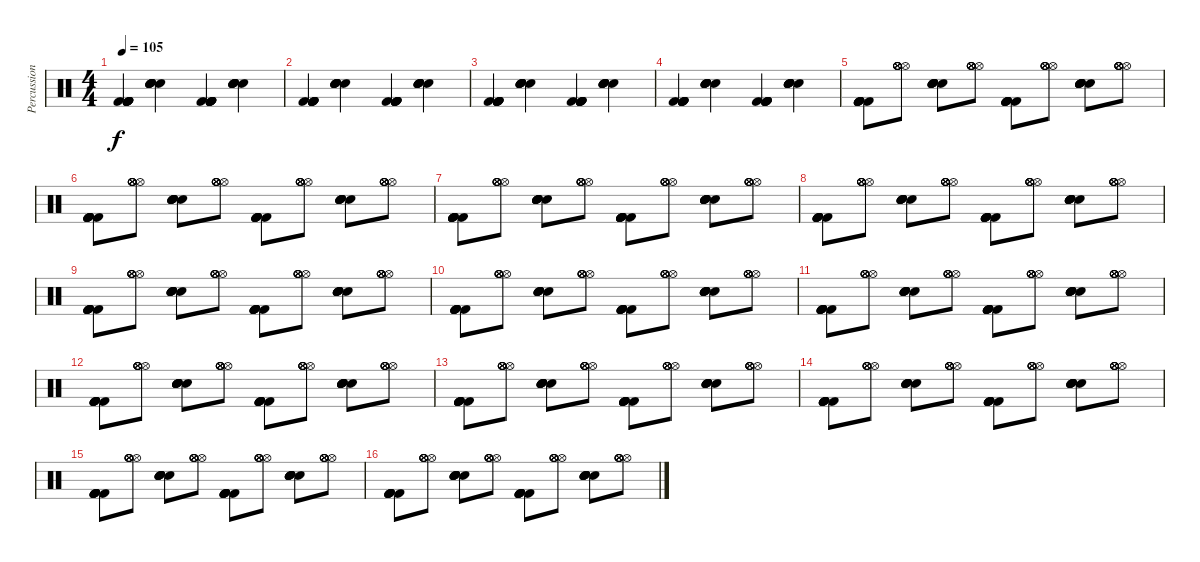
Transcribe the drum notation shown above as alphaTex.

\track ("Percussion" "Percussion") {instrument percussion}
\staff {score}
\articulation defaults
\ts (4 4)
\tempo 105
\clef neutral
\ks c
("Kick (hit) 2" "Kick (hit) 2" "Kick (hit) 2" "Kick (hit) 2" "Kick (hit) 2" "Kick (hit) 2").4{dy f} ("Electric Snare (hit)" "Electric Snare (hit)" "Electric Snare (hit)" "Electric Snare (hit)" "Electric Snare (hit)" "Electric Snare (hit)").4 ("Kick (hit) 2" "Kick (hit) 2" "Kick (hit) 2" "Kick (hit) 2" "Kick (hit) 2" "Kick (hit) 2").4 ("Electric Snare (hit)" "Electric Snare (hit)" "Electric Snare (hit)" "Electric Snare (hit)" "Electric Snare (hit)" "Electric Snare (hit)").4 |
("Kick (hit) 2" "Kick (hit) 2" "Kick (hit) 2" "Kick (hit) 2" "Kick (hit) 2" "Kick (hit) 2").4 ("Electric Snare (hit)" "Electric Snare (hit)" "Electric Snare (hit)" "Electric Snare (hit)" "Electric Snare (hit)" "Electric Snare (hit)").4 ("Kick (hit) 2" "Kick (hit) 2" "Kick (hit) 2" "Kick (hit) 2" "Kick (hit) 2" "Kick (hit) 2").4 ("Electric Snare (hit)" "Electric Snare (hit)" "Electric Snare (hit)" "Electric Snare (hit)" "Electric Snare (hit)" "Electric Snare (hit)").4 |
("Kick (hit) 2" "Kick (hit) 2" "Kick (hit) 2" "Kick (hit) 2" "Kick (hit) 2" "Kick (hit) 2").4 ("Electric Snare (hit)" "Electric Snare (hit)" "Electric Snare (hit)" "Electric Snare (hit)" "Electric Snare (hit)" "Electric Snare (hit)").4 ("Kick (hit) 2" "Kick (hit) 2" "Kick (hit) 2" "Kick (hit) 2" "Kick (hit) 2" "Kick (hit) 2").4 ("Electric Snare (hit)" "Electric Snare (hit)" "Electric Snare (hit)" "Electric Snare (hit)" "Electric Snare (hit)" "Electric Snare (hit)").4 |
("Kick (hit) 2" "Kick (hit) 2" "Kick (hit) 2" "Kick (hit) 2" "Kick (hit) 2" "Kick (hit) 2").4 ("Electric Snare (hit)" "Electric Snare (hit)" "Electric Snare (hit)" "Electric Snare (hit)" "Electric Snare (hit)" "Electric Snare (hit)").4 ("Kick (hit) 2" "Kick (hit) 2" "Kick (hit) 2" "Kick (hit) 2" "Kick (hit) 2" "Kick (hit) 2").4 ("Electric Snare (hit)" "Electric Snare (hit)" "Electric Snare (hit)" "Electric Snare (hit)" "Electric Snare (hit)" "Electric Snare (hit)").4 |
("Kick (hit) 2" "Kick (hit) 2" "Kick (hit) 2" "Kick (hit) 2" "Kick (hit) 2" "Kick (hit) 2").8 ("Hi-Hat (open)" "Hi-Hat (open)" "Hi-Hat (open)" "Hi-Hat (open)" "Hi-Hat (open)" "Hi-Hat (open)").8 ("Electric Snare (hit)" "Electric Snare (hit)" "Electric Snare (hit)" "Electric Snare (hit)" "Electric Snare (hit)" "Electric Snare (hit)").8 ("Hi-Hat (open)" "Hi-Hat (open)" "Hi-Hat (open)" "Hi-Hat (open)" "Hi-Hat (open)" "Hi-Hat (open)").8 ("Kick (hit) 2" "Kick (hit) 2" "Kick (hit) 2" "Kick (hit) 2" "Kick (hit) 2" "Kick (hit) 2").8 ("Hi-Hat (open)" "Hi-Hat (open)" "Hi-Hat (open)" "Hi-Hat (open)" "Hi-Hat (open)" "Hi-Hat (open)").8 ("Electric Snare (hit)" "Electric Snare (hit)" "Electric Snare (hit)" "Electric Snare (hit)" "Electric Snare (hit)" "Electric Snare (hit)").8 ("Hi-Hat (open)" "Hi-Hat (open)" "Hi-Hat (open)" "Hi-Hat (open)" "Hi-Hat (open)" "Hi-Hat (open)").8 |
("Kick (hit) 2" "Kick (hit) 2" "Kick (hit) 2" "Kick (hit) 2" "Kick (hit) 2" "Kick (hit) 2").8 ("Hi-Hat (open)" "Hi-Hat (open)" "Hi-Hat (open)" "Hi-Hat (open)" "Hi-Hat (open)" "Hi-Hat (open)").8 ("Electric Snare (hit)" "Electric Snare (hit)" "Electric Snare (hit)" "Electric Snare (hit)" "Electric Snare (hit)" "Electric Snare (hit)").8 ("Hi-Hat (open)" "Hi-Hat (open)" "Hi-Hat (open)" "Hi-Hat (open)" "Hi-Hat (open)" "Hi-Hat (open)").8 ("Kick (hit) 2" "Kick (hit) 2" "Kick (hit) 2" "Kick (hit) 2" "Kick (hit) 2" "Kick (hit) 2").8 ("Hi-Hat (open)" "Hi-Hat (open)" "Hi-Hat (open)" "Hi-Hat (open)" "Hi-Hat (open)" "Hi-Hat (open)").8 ("Electric Snare (hit)" "Electric Snare (hit)" "Electric Snare (hit)" "Electric Snare (hit)" "Electric Snare (hit)" "Electric Snare (hit)").8 ("Hi-Hat (open)" "Hi-Hat (open)" "Hi-Hat (open)" "Hi-Hat (open)" "Hi-Hat (open)" "Hi-Hat (open)").8 |
("Kick (hit) 2" "Kick (hit) 2" "Kick (hit) 2" "Kick (hit) 2" "Kick (hit) 2" "Kick (hit) 2").8 ("Hi-Hat (open)" "Hi-Hat (open)" "Hi-Hat (open)" "Hi-Hat (open)" "Hi-Hat (open)" "Hi-Hat (open)").8 ("Electric Snare (hit)" "Electric Snare (hit)" "Electric Snare (hit)" "Electric Snare (hit)" "Electric Snare (hit)" "Electric Snare (hit)").8 ("Hi-Hat (open)" "Hi-Hat (open)" "Hi-Hat (open)" "Hi-Hat (open)" "Hi-Hat (open)" "Hi-Hat (open)").8 ("Kick (hit) 2" "Kick (hit) 2" "Kick (hit) 2" "Kick (hit) 2" "Kick (hit) 2" "Kick (hit) 2").8 ("Hi-Hat (open)" "Hi-Hat (open)" "Hi-Hat (open)" "Hi-Hat (open)" "Hi-Hat (open)" "Hi-Hat (open)").8 ("Electric Snare (hit)" "Electric Snare (hit)" "Electric Snare (hit)" "Electric Snare (hit)" "Electric Snare (hit)" "Electric Snare (hit)").8 ("Hi-Hat (open)" "Hi-Hat (open)" "Hi-Hat (open)" "Hi-Hat (open)" "Hi-Hat (open)" "Hi-Hat (open)").8 |
("Kick (hit) 2" "Kick (hit) 2" "Kick (hit) 2" "Kick (hit) 2" "Kick (hit) 2" "Kick (hit) 2").8 ("Hi-Hat (open)" "Hi-Hat (open)" "Hi-Hat (open)" "Hi-Hat (open)" "Hi-Hat (open)" "Hi-Hat (open)").8 ("Electric Snare (hit)" "Electric Snare (hit)" "Electric Snare (hit)" "Electric Snare (hit)" "Electric Snare (hit)" "Electric Snare (hit)").8 ("Hi-Hat (open)" "Hi-Hat (open)" "Hi-Hat (open)" "Hi-Hat (open)" "Hi-Hat (open)" "Hi-Hat (open)").8 ("Kick (hit) 2" "Kick (hit) 2" "Kick (hit) 2" "Kick (hit) 2" "Kick (hit) 2" "Kick (hit) 2").8 ("Hi-Hat (open)" "Hi-Hat (open)" "Hi-Hat (open)" "Hi-Hat (open)" "Hi-Hat (open)" "Hi-Hat (open)").8 ("Electric Snare (hit)" "Electric Snare (hit)" "Electric Snare (hit)" "Electric Snare (hit)" "Electric Snare (hit)" "Electric Snare (hit)").8 ("Hi-Hat (open)" "Hi-Hat (open)" "Hi-Hat (open)" "Hi-Hat (open)" "Hi-Hat (open)" "Hi-Hat (open)").8 |
("Kick (hit) 2" "Kick (hit) 2" "Kick (hit) 2" "Kick (hit) 2" "Kick (hit) 2" "Kick (hit) 2").8 ("Hi-Hat (open)" "Hi-Hat (open)" "Hi-Hat (open)" "Hi-Hat (open)" "Hi-Hat (open)" "Hi-Hat (open)").8 ("Electric Snare (hit)" "Electric Snare (hit)" "Electric Snare (hit)" "Electric Snare (hit)" "Electric Snare (hit)" "Electric Snare (hit)").8 ("Hi-Hat (open)" "Hi-Hat (open)" "Hi-Hat (open)" "Hi-Hat (open)" "Hi-Hat (open)" "Hi-Hat (open)").8 ("Kick (hit) 2" "Kick (hit) 2" "Kick (hit) 2" "Kick (hit) 2" "Kick (hit) 2" "Kick (hit) 2").8 ("Hi-Hat (open)" "Hi-Hat (open)" "Hi-Hat (open)" "Hi-Hat (open)" "Hi-Hat (open)" "Hi-Hat (open)").8 ("Electric Snare (hit)" "Electric Snare (hit)" "Electric Snare (hit)" "Electric Snare (hit)" "Electric Snare (hit)" "Electric Snare (hit)").8 ("Hi-Hat (open)" "Hi-Hat (open)" "Hi-Hat (open)" "Hi-Hat (open)" "Hi-Hat (open)" "Hi-Hat (open)").8 |
("Kick (hit) 2" "Kick (hit) 2" "Kick (hit) 2" "Kick (hit) 2" "Kick (hit) 2" "Kick (hit) 2").8 ("Hi-Hat (open)" "Hi-Hat (open)" "Hi-Hat (open)" "Hi-Hat (open)" "Hi-Hat (open)" "Hi-Hat (open)").8 ("Electric Snare (hit)" "Electric Snare (hit)" "Electric Snare (hit)" "Electric Snare (hit)" "Electric Snare (hit)" "Electric Snare (hit)").8 ("Hi-Hat (open)" "Hi-Hat (open)" "Hi-Hat (open)" "Hi-Hat (open)" "Hi-Hat (open)" "Hi-Hat (open)").8 ("Kick (hit) 2" "Kick (hit) 2" "Kick (hit) 2" "Kick (hit) 2" "Kick (hit) 2" "Kick (hit) 2").8 ("Hi-Hat (open)" "Hi-Hat (open)" "Hi-Hat (open)" "Hi-Hat (open)" "Hi-Hat (open)" "Hi-Hat (open)").8 ("Electric Snare (hit)" "Electric Snare (hit)" "Electric Snare (hit)" "Electric Snare (hit)" "Electric Snare (hit)" "Electric Snare (hit)").8 ("Hi-Hat (open)" "Hi-Hat (open)" "Hi-Hat (open)" "Hi-Hat (open)" "Hi-Hat (open)" "Hi-Hat (open)").8 |
("Kick (hit) 2" "Kick (hit) 2" "Kick (hit) 2" "Kick (hit) 2" "Kick (hit) 2" "Kick (hit) 2").8 ("Hi-Hat (open)" "Hi-Hat (open)" "Hi-Hat (open)" "Hi-Hat (open)" "Hi-Hat (open)" "Hi-Hat (open)").8 ("Electric Snare (hit)" "Electric Snare (hit)" "Electric Snare (hit)" "Electric Snare (hit)" "Electric Snare (hit)" "Electric Snare (hit)").8 ("Hi-Hat (open)" "Hi-Hat (open)" "Hi-Hat (open)" "Hi-Hat (open)" "Hi-Hat (open)" "Hi-Hat (open)").8 ("Kick (hit) 2" "Kick (hit) 2" "Kick (hit) 2" "Kick (hit) 2" "Kick (hit) 2" "Kick (hit) 2").8 ("Hi-Hat (open)" "Hi-Hat (open)" "Hi-Hat (open)" "Hi-Hat (open)" "Hi-Hat (open)" "Hi-Hat (open)").8 ("Electric Snare (hit)" "Electric Snare (hit)" "Electric Snare (hit)" "Electric Snare (hit)" "Electric Snare (hit)" "Electric Snare (hit)").8 ("Hi-Hat (open)" "Hi-Hat (open)" "Hi-Hat (open)" "Hi-Hat (open)" "Hi-Hat (open)" "Hi-Hat (open)").8 |
("Kick (hit) 2" "Kick (hit) 2" "Kick (hit) 2" "Kick (hit) 2" "Kick (hit) 2" "Kick (hit) 2").8 ("Hi-Hat (open)" "Hi-Hat (open)" "Hi-Hat (open)" "Hi-Hat (open)" "Hi-Hat (open)" "Hi-Hat (open)").8 ("Electric Snare (hit)" "Electric Snare (hit)" "Electric Snare (hit)" "Electric Snare (hit)" "Electric Snare (hit)" "Electric Snare (hit)").8 ("Hi-Hat (open)" "Hi-Hat (open)" "Hi-Hat (open)" "Hi-Hat (open)" "Hi-Hat (open)" "Hi-Hat (open)").8 ("Kick (hit) 2" "Kick (hit) 2" "Kick (hit) 2" "Kick (hit) 2" "Kick (hit) 2" "Kick (hit) 2").8 ("Hi-Hat (open)" "Hi-Hat (open)" "Hi-Hat (open)" "Hi-Hat (open)" "Hi-Hat (open)" "Hi-Hat (open)").8 ("Electric Snare (hit)" "Electric Snare (hit)" "Electric Snare (hit)" "Electric Snare (hit)" "Electric Snare (hit)" "Electric Snare (hit)").8 ("Hi-Hat (open)" "Hi-Hat (open)" "Hi-Hat (open)" "Hi-Hat (open)" "Hi-Hat (open)" "Hi-Hat (open)").8 |
("Kick (hit) 2" "Kick (hit) 2" "Kick (hit) 2" "Kick (hit) 2" "Kick (hit) 2" "Kick (hit) 2").8 ("Hi-Hat (open)" "Hi-Hat (open)" "Hi-Hat (open)" "Hi-Hat (open)" "Hi-Hat (open)" "Hi-Hat (open)").8 ("Electric Snare (hit)" "Electric Snare (hit)" "Electric Snare (hit)" "Electric Snare (hit)" "Electric Snare (hit)" "Electric Snare (hit)").8 ("Hi-Hat (open)" "Hi-Hat (open)" "Hi-Hat (open)" "Hi-Hat (open)" "Hi-Hat (open)" "Hi-Hat (open)").8 ("Kick (hit) 2" "Kick (hit) 2" "Kick (hit) 2" "Kick (hit) 2" "Kick (hit) 2" "Kick (hit) 2").8 ("Hi-Hat (open)" "Hi-Hat (open)" "Hi-Hat (open)" "Hi-Hat (open)" "Hi-Hat (open)" "Hi-Hat (open)").8 ("Electric Snare (hit)" "Electric Snare (hit)" "Electric Snare (hit)" "Electric Snare (hit)" "Electric Snare (hit)" "Electric Snare (hit)").8 ("Hi-Hat (open)" "Hi-Hat (open)" "Hi-Hat (open)" "Hi-Hat (open)" "Hi-Hat (open)" "Hi-Hat (open)").8 |
("Kick (hit) 2" "Kick (hit) 2" "Kick (hit) 2" "Kick (hit) 2" "Kick (hit) 2" "Kick (hit) 2").8 ("Hi-Hat (open)" "Hi-Hat (open)" "Hi-Hat (open)" "Hi-Hat (open)" "Hi-Hat (open)" "Hi-Hat (open)").8 ("Electric Snare (hit)" "Electric Snare (hit)" "Electric Snare (hit)" "Electric Snare (hit)" "Electric Snare (hit)" "Electric Snare (hit)").8 ("Hi-Hat (open)" "Hi-Hat (open)" "Hi-Hat (open)" "Hi-Hat (open)" "Hi-Hat (open)" "Hi-Hat (open)").8 ("Kick (hit) 2" "Kick (hit) 2" "Kick (hit) 2" "Kick (hit) 2" "Kick (hit) 2" "Kick (hit) 2").8 ("Hi-Hat (open)" "Hi-Hat (open)" "Hi-Hat (open)" "Hi-Hat (open)" "Hi-Hat (open)" "Hi-Hat (open)").8 ("Electric Snare (hit)" "Electric Snare (hit)" "Electric Snare (hit)" "Electric Snare (hit)" "Electric Snare (hit)" "Electric Snare (hit)").8 ("Hi-Hat (open)" "Hi-Hat (open)" "Hi-Hat (open)" "Hi-Hat (open)" "Hi-Hat (open)" "Hi-Hat (open)").8 |
("Kick (hit) 2" "Kick (hit) 2" "Kick (hit) 2" "Kick (hit) 2" "Kick (hit) 2" "Kick (hit) 2").8 ("Hi-Hat (open)" "Hi-Hat (open)" "Hi-Hat (open)" "Hi-Hat (open)" "Hi-Hat (open)" "Hi-Hat (open)").8 ("Electric Snare (hit)" "Electric Snare (hit)" "Electric Snare (hit)" "Electric Snare (hit)" "Electric Snare (hit)" "Electric Snare (hit)").8 ("Hi-Hat (open)" "Hi-Hat (open)" "Hi-Hat (open)" "Hi-Hat (open)" "Hi-Hat (open)" "Hi-Hat (open)").8 ("Kick (hit) 2" "Kick (hit) 2" "Kick (hit) 2" "Kick (hit) 2" "Kick (hit) 2" "Kick (hit) 2").8 ("Hi-Hat (open)" "Hi-Hat (open)" "Hi-Hat (open)" "Hi-Hat (open)" "Hi-Hat (open)" "Hi-Hat (open)").8 ("Electric Snare (hit)" "Electric Snare (hit)" "Electric Snare (hit)" "Electric Snare (hit)" "Electric Snare (hit)" "Electric Snare (hit)").8 ("Hi-Hat (open)" "Hi-Hat (open)" "Hi-Hat (open)" "Hi-Hat (open)" "Hi-Hat (open)" "Hi-Hat (open)").8 |
("Kick (hit) 2" "Kick (hit) 2" "Kick (hit) 2" "Kick (hit) 2" "Kick (hit) 2" "Kick (hit) 2").8 ("Hi-Hat (open)" "Hi-Hat (open)" "Hi-Hat (open)" "Hi-Hat (open)" "Hi-Hat (open)" "Hi-Hat (open)").8 ("Electric Snare (hit)" "Electric Snare (hit)" "Electric Snare (hit)" "Electric Snare (hit)" "Electric Snare (hit)" "Electric Snare (hit)").8 ("Hi-Hat (open)" "Hi-Hat (open)" "Hi-Hat (open)" "Hi-Hat (open)" "Hi-Hat (open)" "Hi-Hat (open)").8 ("Kick (hit) 2" "Kick (hit) 2" "Kick (hit) 2" "Kick (hit) 2" "Kick (hit) 2" "Kick (hit) 2").8 ("Hi-Hat (open)" "Hi-Hat (open)" "Hi-Hat (open)" "Hi-Hat (open)" "Hi-Hat (open)" "Hi-Hat (open)").8 ("Electric Snare (hit)" "Electric Snare (hit)" "Electric Snare (hit)" "Electric Snare (hit)" "Electric Snare (hit)" "Electric Snare (hit)").8 ("Hi-Hat (open)" "Hi-Hat (open)" "Hi-Hat (open)" "Hi-Hat (open)" "Hi-Hat (open)" "Hi-Hat (open)").8
